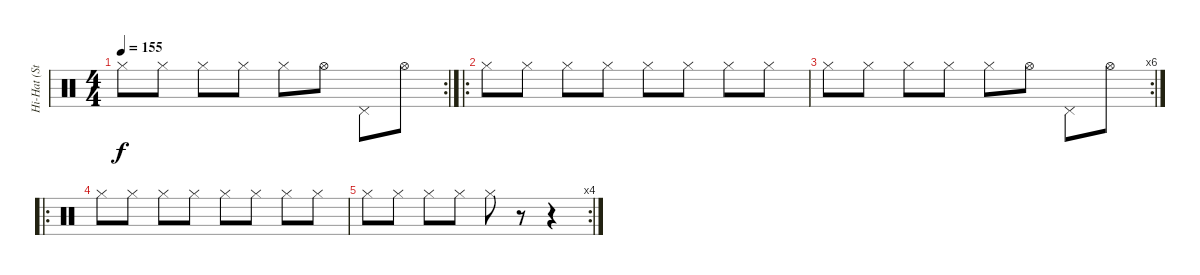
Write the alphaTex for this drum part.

\track ("Hi-Hat (Stephen Morris)" "Hi-Hat (St") {instrument percussion}
\staff {score}
\articulation defaults
\rc 2
\ts (4 4)
\tempo 155
\clef neutral
\ks c "Hi-Hat (closed)".8{dy f} "Hi-Hat (closed)".8 "Hi-Hat (closed)".8 "Hi-Hat (closed)".8 "Hi-Hat (closed)".8 "Hi-Hat (open)".8 "Pedal Hi-Hat (hit)".8 "Hi-Hat (open)".8
|
\ro "Hi-Hat (closed)".8 "Hi-Hat (closed)".8 "Hi-Hat (closed)".8 "Hi-Hat (closed)".8 "Hi-Hat (closed)".8 "Hi-Hat (closed)".8 "Hi-Hat (closed)".8 "Hi-Hat (closed)".8
|
\rc 6 "Hi-Hat (closed)".8 "Hi-Hat (closed)".8 "Hi-Hat (closed)".8 "Hi-Hat (closed)".8 "Hi-Hat (closed)".8 "Hi-Hat (open)".8 "Pedal Hi-Hat (hit)".8 "Hi-Hat (open)".8
|
\ro "Hi-Hat (closed)".8 "Hi-Hat (closed)".8 "Hi-Hat (closed)".8 "Hi-Hat (closed)".8 "Hi-Hat (closed)".8 "Hi-Hat (closed)".8 "Hi-Hat (closed)".8 "Hi-Hat (closed)".8
|
\rc 4 "Hi-Hat (closed)".8 "Hi-Hat (closed)".8 "Hi-Hat (closed)".8 "Hi-Hat (closed)".8 "Hi-Hat (closed)".8
r.8 r.4
